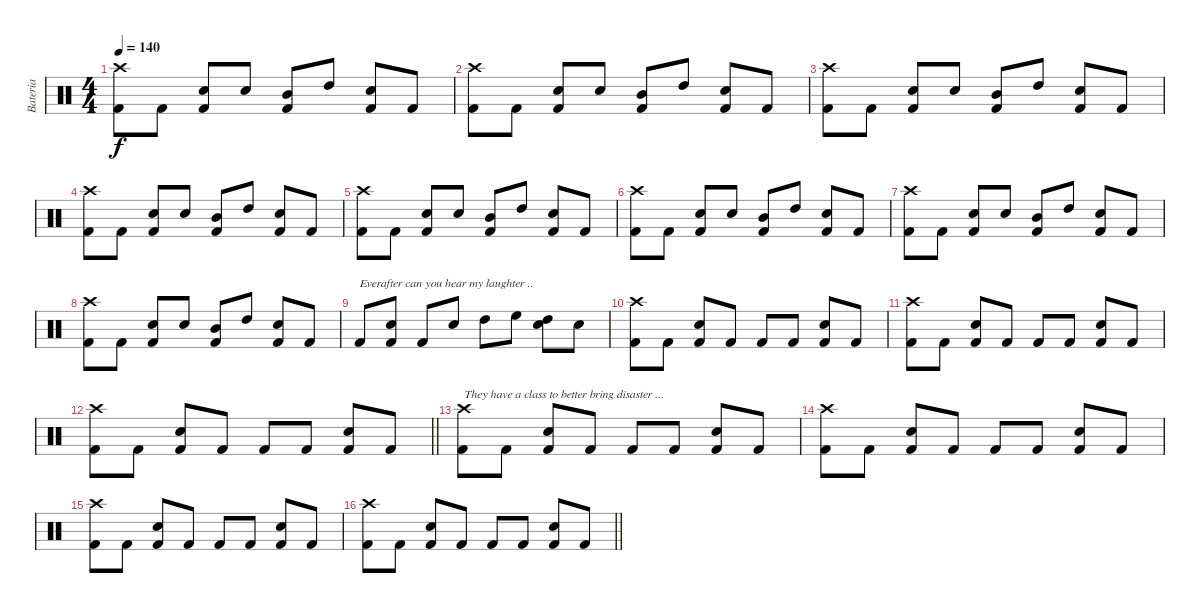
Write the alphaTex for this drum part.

\track ("Bateria" "Bateria") {instrument percussion}
\staff {score}
\articulation defaults
\ts (4 4)
\tempo 140
\clef neutral
\ks c
("Kick (hit) 2" "Crash high (hit)").8{dy f} "Kick (hit) 2".8 ("Kick (hit) 2" "Electric Snare (hit)").8 "Snare (hit) 2".8 ("Kick (hit) 2" "Mid Tom (hit)").8 "High Tom (hit)".8 ("Kick (hit) 2" "Electric Snare (hit)").8 "Kick (hit) 2".8 |
("Kick (hit) 2" "Crash high (hit)").8 "Kick (hit) 2".8 ("Kick (hit) 2" "Electric Snare (hit)").8 "Snare (hit) 2".8 ("Kick (hit) 2" "Mid Tom (hit)").8 "High Tom (hit)".8 ("Kick (hit) 2" "Electric Snare (hit)").8 "Kick (hit) 2".8 |
("Kick (hit) 2" "Crash high (hit)").8 "Kick (hit) 2".8 ("Kick (hit) 2" "Electric Snare (hit)").8 "Snare (hit) 2".8 ("Kick (hit) 2" "Mid Tom (hit)").8 "High Tom (hit)".8 ("Kick (hit) 2" "Electric Snare (hit)").8 "Kick (hit) 2".8 |
("Kick (hit) 2" "Crash high (hit)").8 "Kick (hit) 2".8 ("Kick (hit) 2" "Electric Snare (hit)").8 "Snare (hit) 2".8 ("Kick (hit) 2" "Mid Tom (hit)").8 "High Tom (hit)".8 ("Kick (hit) 2" "Electric Snare (hit)").8 "Kick (hit) 2".8 |
("Kick (hit) 2" "Crash high (hit)").8 "Kick (hit) 2".8 ("Kick (hit) 2" "Electric Snare (hit)").8 "Snare (hit) 2".8 ("Kick (hit) 2" "Mid Tom (hit)").8 "High Tom (hit)".8 ("Kick (hit) 2" "Electric Snare (hit)").8 "Kick (hit) 2".8 |
("Kick (hit) 2" "Crash high (hit)").8 "Kick (hit) 2".8 ("Kick (hit) 2" "Electric Snare (hit)").8 "Snare (hit) 2".8 ("Kick (hit) 2" "Mid Tom (hit)").8 "High Tom (hit)".8 ("Kick (hit) 2" "Electric Snare (hit)").8 "Kick (hit) 2".8 |
("Kick (hit) 2" "Crash high (hit)").8 "Kick (hit) 2".8 ("Kick (hit) 2" "Electric Snare (hit)").8 "Snare (hit) 2".8 ("Kick (hit) 2" "Mid Tom (hit)").8 "High Tom (hit)".8 ("Kick (hit) 2" "Electric Snare (hit)").8 "Kick (hit) 2".8 |
("Kick (hit) 2" "Crash high (hit)").8 "Kick (hit) 2".8 ("Kick (hit) 2" "Electric Snare (hit)").8 "Snare (hit) 2".8 ("Kick (hit) 2" "Mid Tom (hit)").8 "High Tom (hit)".8 ("Kick (hit) 2" "Electric Snare (hit)").8 "Kick (hit) 2".8 |
"Kick (hit) 2".8{txt "Everafter can you hear my laughter .."} ("Kick (hit) 2" "Electric Snare (hit)").8 "Kick (hit) 2".8 "Snare (hit) 2".8 "High Tom (hit)".8 "High Floor Tom (hit)".8 ("High Tom (hit)" "Electric Snare (hit)").8 "Snare (hit) 2".8 |
("Kick (hit) 2" "Crash high (hit)").8 "Kick (hit) 2".8 ("Kick (hit) 2" "Electric Snare (hit)").8 "Kick (hit) 2".8 "Kick (hit) 2".8 "Kick (hit) 2".8 ("Kick (hit) 2" "Electric Snare (hit)").8 "Kick (hit) 2".8 |
("Kick (hit) 2" "Crash high (hit)").8 "Kick (hit) 2".8 ("Kick (hit) 2" "Electric Snare (hit)").8 "Kick (hit) 2".8 "Kick (hit) 2".8 "Kick (hit) 2".8 ("Kick (hit) 2" "Electric Snare (hit)").8 "Kick (hit) 2".8 |
\barLineRight lightlight
("Kick (hit) 2" "Crash high (hit)").8 "Kick (hit) 2".8 ("Kick (hit) 2" "Electric Snare (hit)").8 "Kick (hit) 2".8 "Kick (hit) 2".8 "Kick (hit) 2".8 ("Kick (hit) 2" "Electric Snare (hit)").8 "Kick (hit) 2".8 |
("Kick (hit) 2" "Crash high (hit)").8{txt "They have a class to better bring disaster ..."} "Kick (hit) 2".8 ("Kick (hit) 2" "Electric Snare (hit)").8 "Kick (hit) 2".8 "Kick (hit) 2".8 "Kick (hit) 2".8 ("Kick (hit) 2" "Electric Snare (hit)").8 "Kick (hit) 2".8 |
("Kick (hit) 2" "Crash high (hit)").8 "Kick (hit) 2".8 ("Kick (hit) 2" "Electric Snare (hit)").8 "Kick (hit) 2".8 "Kick (hit) 2".8 "Kick (hit) 2".8 ("Kick (hit) 2" "Electric Snare (hit)").8 "Kick (hit) 2".8 |
("Kick (hit) 2" "Crash high (hit)").8 "Kick (hit) 2".8 ("Kick (hit) 2" "Electric Snare (hit)").8 "Kick (hit) 2".8 "Kick (hit) 2".8 "Kick (hit) 2".8 ("Kick (hit) 2" "Electric Snare (hit)").8 "Kick (hit) 2".8 |
\barLineRight lightlight
("Kick (hit) 2" "Crash high (hit)").8 "Kick (hit) 2".8 ("Kick (hit) 2" "Electric Snare (hit)").8 "Kick (hit) 2".8 "Kick (hit) 2".8 "Kick (hit) 2".8 ("Kick (hit) 2" "Electric Snare (hit)").8 "Kick (hit) 2".8
